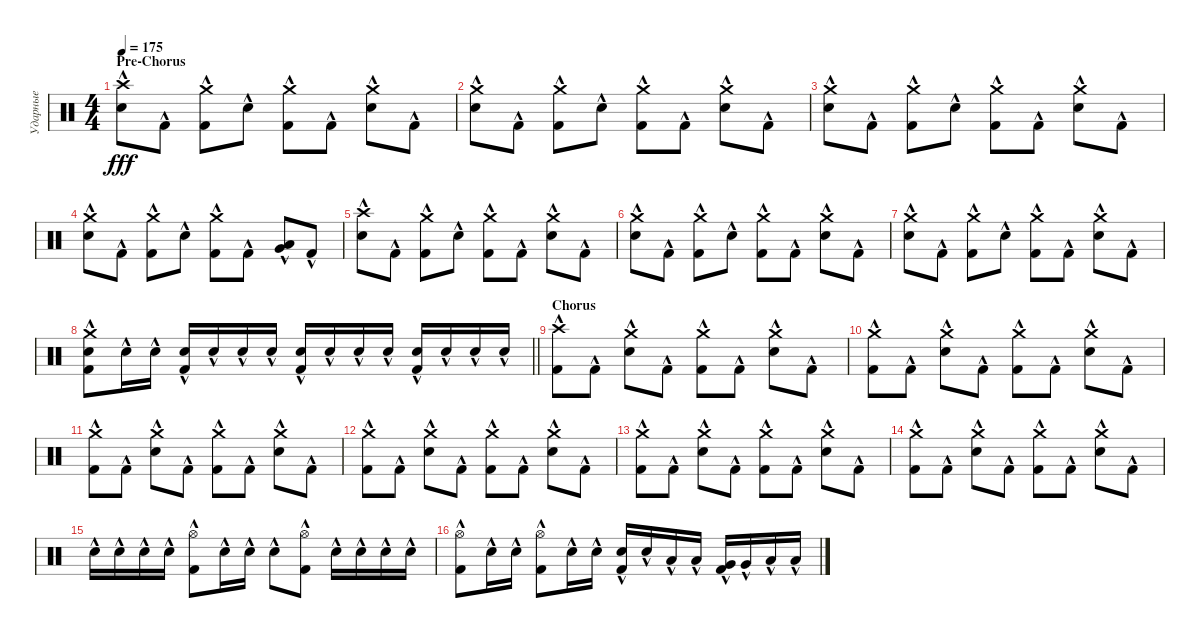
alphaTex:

\track ("Ударные" "Ударные") {instrument percussion}
\staff {score}
\articulation defaults
\ts (4 4)
\section ("" "Pre-Chorus")
\tempo 175
\clef neutral
\ks c
("Crash high (hit)"{hac} "Snare (hit) 2"{hac}).8{dy fff} "Kick (hit) 2"{hac}.8 ("Crash medium (hit)"{hac} "Kick (hit) 2"{hac}).8 "Snare (hit) 2"{hac}.8 ("Crash medium (hit)"{hac} "Kick (hit) 2"{hac}).8 "Kick (hit) 2"{hac}.8 ("Crash medium (hit)"{hac} "Snare (hit) 2"{hac}).8 "Kick (hit) 2"{hac}.8 |
("Crash medium (hit)"{hac} "Snare (hit) 2"{hac}).8 "Kick (hit) 2"{hac}.8 ("Crash medium (hit)"{hac} "Kick (hit) 2"{hac}).8 "Snare (hit) 2"{hac}.8 ("Crash medium (hit)"{hac} "Kick (hit) 2"{hac}).8 "Kick (hit) 2"{hac}.8 ("Crash medium (hit)"{hac} "Snare (hit) 2"{hac}).8 "Kick (hit) 2"{hac}.8 |
("Crash medium (hit)"{hac} "Snare (hit) 2"{hac}).8 "Kick (hit) 2"{hac}.8 ("Crash medium (hit)"{hac} "Kick (hit) 2"{hac}).8 "Snare (hit) 2"{hac}.8 ("Crash medium (hit)"{hac} "Kick (hit) 2"{hac}).8 "Kick (hit) 2"{hac}.8 ("Crash medium (hit)"{hac} "Snare (hit) 2"{hac}).8 "Kick (hit) 2"{hac}.8 |
("Crash medium (hit)"{hac} "Snare (hit) 2"{hac}).8 "Kick (hit) 2"{hac}.8 ("Crash medium (hit)"{hac} "Kick (hit) 2"{hac}).8 "Snare (hit) 2"{hac}.8 ("Crash medium (hit)"{hac} "Kick (hit) 2"{hac}).8 "Kick (hit) 2"{hac}.8 ("Very Low Tom (hit)"{hac} "Low Floor Tom (hit)"{hac}).8 "Kick (hit) 2"{hac}.8 |
("Crash high (hit)"{hac} "Snare (hit) 2"{hac}).8 "Kick (hit) 2"{hac}.8 ("Crash medium (hit)"{hac} "Kick (hit) 2"{hac}).8 "Snare (hit) 2"{hac}.8 ("Crash medium (hit)"{hac} "Kick (hit) 2"{hac}).8 "Kick (hit) 2"{hac}.8 ("Crash medium (hit)"{hac} "Snare (hit) 2"{hac}).8 "Kick (hit) 2"{hac}.8 |
("Crash medium (hit)"{hac} "Snare (hit) 2"{hac}).8 "Kick (hit) 2"{hac}.8 ("Crash medium (hit)"{hac} "Kick (hit) 2"{hac}).8 "Snare (hit) 2"{hac}.8 ("Crash medium (hit)"{hac} "Kick (hit) 2"{hac}).8 "Kick (hit) 2"{hac}.8 ("Crash medium (hit)"{hac} "Snare (hit) 2"{hac}).8 "Kick (hit) 2"{hac}.8 |
("Crash medium (hit)"{hac} "Snare (hit) 2"{hac}).8 "Kick (hit) 2"{hac}.8 ("Crash medium (hit)"{hac} "Kick (hit) 2"{hac}).8 "Snare (hit) 2"{hac}.8 ("Crash medium (hit)"{hac} "Kick (hit) 2"{hac}).8 "Kick (hit) 2"{hac}.8 ("Crash medium (hit)"{hac} "Snare (hit) 2"{hac}).8 "Kick (hit) 2"{hac}.8 |
\barLineRight lightlight
("Crash medium (hit)"{hac} "Snare (hit) 2"{hac} "Kick (hit) 2"{hac}).8 "Snare (hit) 2"{hac}.16 "Snare (hit) 2"{hac}.16 ("Snare (hit) 2"{hac} "Kick (hit) 2"{hac}).16 "Snare (hit) 2"{hac}.16 "Snare (hit) 2"{hac}.16 "Snare (hit) 2"{hac}.16 ("Snare (hit) 2"{hac} "Kick (hit) 2"{hac}).16 "Snare (hit) 2"{hac}.16 "Snare (hit) 2"{hac}.16 "Snare (hit) 2"{hac}.16 ("Snare (hit) 2"{hac} "Kick (hit) 2"{hac}).16 "Snare (hit) 2"{hac}.16 "Snare (hit) 2"{hac}.16 "Snare (hit) 2"{hac}.16 |
\section ("" "Chorus")
("Crash high (hit)"{hac} "Kick (hit) 2"{hac}).8 "Kick (hit) 2"{hac}.8 ("Crash medium (hit)"{hac} "Snare (hit) 2"{hac}).8 "Kick (hit) 2"{hac}.8 ("Crash medium (hit)"{hac} "Kick (hit) 2"{hac}).8 "Kick (hit) 2"{hac}.8 ("Crash medium (hit)"{hac} "Snare (hit) 2"{hac}).8 "Kick (hit) 2"{hac}.8 |
("Crash medium (hit)"{hac} "Kick (hit) 2"{hac}).8 "Kick (hit) 2"{hac}.8 ("Crash medium (hit)"{hac} "Snare (hit) 2"{hac}).8 "Kick (hit) 2"{hac}.8 ("Crash medium (hit)"{hac} "Kick (hit) 2"{hac}).8 "Kick (hit) 2"{hac}.8 ("Crash medium (hit)"{hac} "Snare (hit) 2"{hac}).8 "Kick (hit) 2"{hac}.8 |
("Crash medium (hit)"{hac} "Kick (hit) 2"{hac}).8 "Kick (hit) 2"{hac}.8 ("Crash medium (hit)"{hac} "Snare (hit) 2"{hac}).8 "Kick (hit) 2"{hac}.8 ("Crash medium (hit)"{hac} "Kick (hit) 2"{hac}).8 "Kick (hit) 2"{hac}.8 ("Crash medium (hit)"{hac} "Snare (hit) 2"{hac}).8 "Kick (hit) 2"{hac}.8 |
("Crash medium (hit)"{hac} "Kick (hit) 2"{hac}).8 "Kick (hit) 2"{hac}.8 ("Crash medium (hit)"{hac} "Snare (hit) 2"{hac}).8 "Kick (hit) 2"{hac}.8 ("Crash medium (hit)"{hac} "Kick (hit) 2"{hac}).8 "Kick (hit) 2"{hac}.8 ("Crash medium (hit)"{hac} "Snare (hit) 2"{hac}).8 "Kick (hit) 2"{hac}.8 |
("Crash medium (hit)"{hac} "Kick (hit) 2"{hac}).8 "Kick (hit) 2"{hac}.8 ("Crash medium (hit)"{hac} "Snare (hit) 2"{hac}).8 "Kick (hit) 2"{hac}.8 ("Crash medium (hit)"{hac} "Kick (hit) 2"{hac}).8 "Kick (hit) 2"{hac}.8 ("Crash medium (hit)"{hac} "Snare (hit) 2"{hac}).8 "Kick (hit) 2"{hac}.8 |
("Crash medium (hit)"{hac} "Kick (hit) 2"{hac}).8 "Kick (hit) 2"{hac}.8 ("Crash medium (hit)"{hac} "Snare (hit) 2"{hac}).8 "Kick (hit) 2"{hac}.8 ("Crash medium (hit)"{hac} "Kick (hit) 2"{hac}).8 "Kick (hit) 2"{hac}.8 ("Crash medium (hit)"{hac} "Snare (hit) 2"{hac}).8 "Kick (hit) 2"{hac}.8 |
"Snare (hit) 2"{hac}.16 "Snare (hit) 2"{hac}.16 "Snare (hit) 2"{hac}.16 "Snare (hit) 2"{hac}.16 ("Hi-Hat (open)"{hac} "Kick (hit) 2"{hac}).8 "Snare (hit) 2"{hac}.16 "Snare (hit) 2"{hac}.16 "Snare (hit) 2"{hac}.8 ("Hi-Hat (open)"{hac} "Kick (hit) 2"{hac}).8 "Snare (hit) 2"{hac}.16 "Snare (hit) 2"{hac}.16 "Snare (hit) 2"{hac}.16 "Snare (hit) 2"{hac}.16 |
("Hi-Hat (open)"{hac} "Kick (hit) 2"{hac}).8 "Snare (hit) 2"{hac}.16 "Snare (hit) 2"{hac}.16 ("Hi-Hat (open)"{hac} "Kick (hit) 2"{hac}).8 "Snare (hit) 2"{hac}.16 "Snare (hit) 2"{hac}.16 ("Snare (hit) 2"{hac} "Kick (hit) 2"{hac}).16 "Snare (hit) 2"{hac}.16 "Low Tom (hit)"{hac}.16 "Low Tom (hit)"{hac}.16 ("Very Low Tom (hit)"{hac} "Kick (hit) 2"{hac}).16 "Very Low Tom (hit)"{hac}.16 "Low Floor Tom (hit)"{hac}.16 "Low Floor Tom (hit)"{hac}.16
